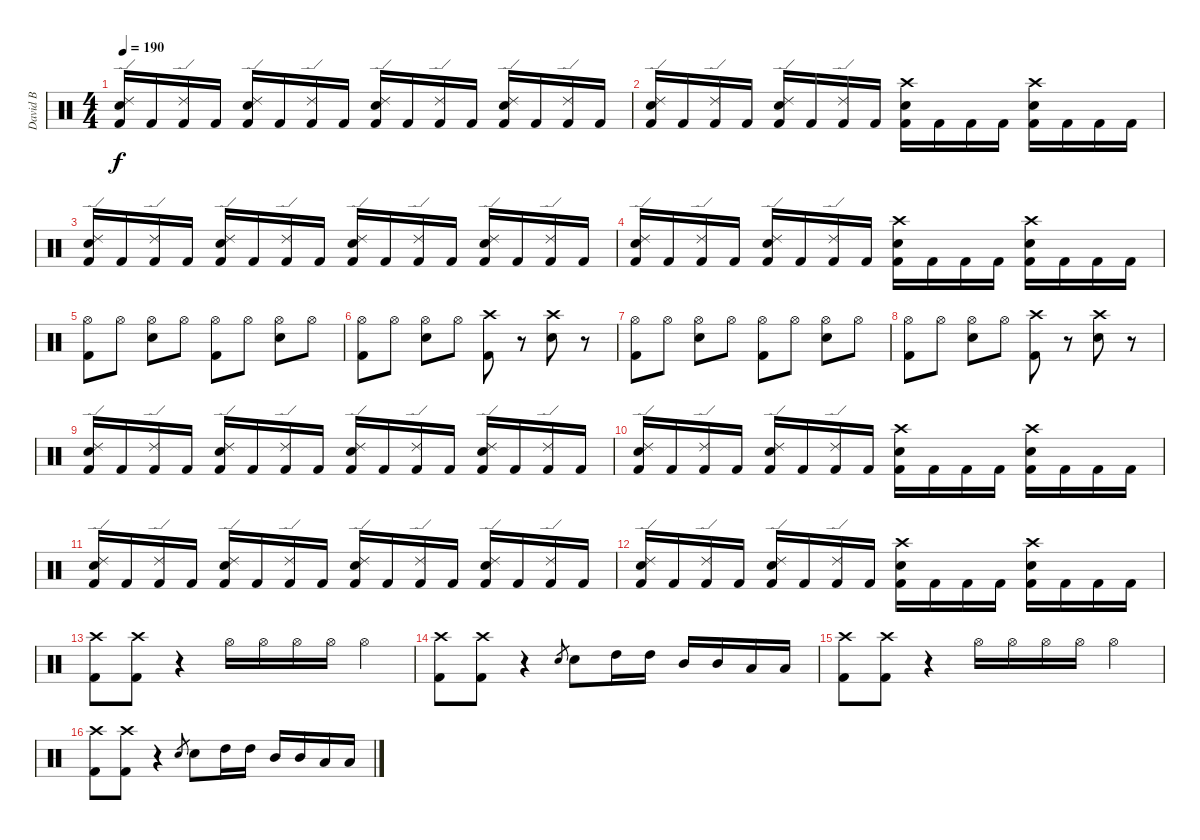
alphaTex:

\track ("David B" "David B") {instrument percussion}
\staff {score}
\articulation defaults
\ts (4 4)
\tempo 190
\clef neutral
\ks c
("Ride (edge) 2" "Electric Snare (hit)" "Kick (hit) 2").16{dy f} "Kick (hit) 2".16 ("Ride (edge) 2" "Kick (hit) 2").16 "Kick (hit) 2".16 ("Ride (edge) 2" "Electric Snare (hit)" "Kick (hit) 2").16 "Kick (hit) 2".16 ("Ride (edge) 2" "Kick (hit) 2").16 "Kick (hit) 2".16 ("Ride (edge) 2" "Electric Snare (hit)" "Kick (hit) 2").16 "Kick (hit) 2".16 ("Ride (edge) 2" "Kick (hit) 2").16 "Kick (hit) 2".16 ("Ride (edge) 2" "Electric Snare (hit)" "Kick (hit) 2").16 "Kick (hit) 2".16 ("Ride (edge) 2" "Kick (hit) 2").16 "Kick (hit) 2".16 |
("Ride (edge) 2" "Electric Snare (hit)" "Kick (hit) 2").16 "Kick (hit) 2".16 ("Ride (edge) 2" "Kick (hit) 2").16 "Kick (hit) 2".16 ("Ride (edge) 2" "Electric Snare (hit)" "Kick (hit) 2").16 "Kick (hit) 2".16 ("Ride (edge) 2" "Kick (hit) 2").16 "Kick (hit) 2".16 ("Crash high (hit)" "Electric Snare (hit)" "Kick (hit) 2").16 "Kick (hit) 2".16 "Kick (hit) 2".16 "Kick (hit) 2".16 ("Crash high (hit)" "Electric Snare (hit)" "Kick (hit) 2").16 "Kick (hit) 2".16 "Kick (hit) 2".16 "Kick (hit) 2".16 |
("Ride (edge) 2" "Electric Snare (hit)" "Kick (hit) 2").16 "Kick (hit) 2".16 ("Ride (edge) 2" "Kick (hit) 2").16 "Kick (hit) 2".16 ("Ride (edge) 2" "Electric Snare (hit)" "Kick (hit) 2").16 "Kick (hit) 2".16 ("Ride (edge) 2" "Kick (hit) 2").16 "Kick (hit) 2".16 ("Ride (edge) 2" "Electric Snare (hit)" "Kick (hit) 2").16 "Kick (hit) 2".16 ("Ride (edge) 2" "Kick (hit) 2").16 "Kick (hit) 2".16 ("Ride (edge) 2" "Electric Snare (hit)" "Kick (hit) 2").16 "Kick (hit) 2".16 ("Ride (edge) 2" "Kick (hit) 2").16 "Kick (hit) 2".16 |
("Ride (edge) 2" "Electric Snare (hit)" "Kick (hit) 2").16 "Kick (hit) 2".16 ("Ride (edge) 2" "Kick (hit) 2").16 "Kick (hit) 2".16 ("Ride (edge) 2" "Electric Snare (hit)" "Kick (hit) 2").16 "Kick (hit) 2".16 ("Ride (edge) 2" "Kick (hit) 2").16 "Kick (hit) 2".16 ("Crash high (hit)" "Electric Snare (hit)" "Kick (hit) 2").16 "Kick (hit) 2".16 "Kick (hit) 2".16 "Kick (hit) 2".16 ("Crash high (hit)" "Electric Snare (hit)" "Kick (hit) 2").16 "Kick (hit) 2".16 "Kick (hit) 2".16 "Kick (hit) 2".16 |
("Hi-Hat (open)" "Kick (hit) 2").8 "Hi-Hat (open)".8 ("Hi-Hat (open)" "Electric Snare (hit)").8 "Hi-Hat (open)".8 ("Hi-Hat (open)" "Kick (hit) 2").8 "Hi-Hat (open)".8 ("Hi-Hat (open)" "Electric Snare (hit)").8 "Hi-Hat (open)".8 |
("Hi-Hat (open)" "Kick (hit) 2").8 "Hi-Hat (open)".8 ("Hi-Hat (open)" "Electric Snare (hit)").8 "Hi-Hat (open)".8 ("Crash high (hit)" "Kick (hit) 2").8 r.8 ("Crash high (hit)" "Electric Snare (hit)").8 r.8 |
("Hi-Hat (open)" "Kick (hit) 2").8 "Hi-Hat (open)".8 ("Hi-Hat (open)" "Electric Snare (hit)").8 "Hi-Hat (open)".8 ("Hi-Hat (open)" "Kick (hit) 2").8 "Hi-Hat (open)".8 ("Hi-Hat (open)" "Electric Snare (hit)").8 "Hi-Hat (open)".8 |
("Hi-Hat (open)" "Kick (hit) 2").8 "Hi-Hat (open)".8 ("Hi-Hat (open)" "Electric Snare (hit)").8 "Hi-Hat (open)".8 ("Crash high (hit)" "Kick (hit) 2").8 r.8 ("Crash high (hit)" "Electric Snare (hit)").8 r.8 |
("Ride (edge) 2" "Electric Snare (hit)" "Kick (hit) 2").16 "Kick (hit) 2".16 ("Ride (edge) 2" "Kick (hit) 2").16 "Kick (hit) 2".16 ("Ride (edge) 2" "Electric Snare (hit)" "Kick (hit) 2").16 "Kick (hit) 2".16 ("Ride (edge) 2" "Kick (hit) 2").16 "Kick (hit) 2".16 ("Ride (edge) 2" "Electric Snare (hit)" "Kick (hit) 2").16 "Kick (hit) 2".16 ("Ride (edge) 2" "Kick (hit) 2").16 "Kick (hit) 2".16 ("Ride (edge) 2" "Electric Snare (hit)" "Kick (hit) 2").16 "Kick (hit) 2".16 ("Ride (edge) 2" "Kick (hit) 2").16 "Kick (hit) 2".16 |
("Ride (edge) 2" "Electric Snare (hit)" "Kick (hit) 2").16 "Kick (hit) 2".16 ("Ride (edge) 2" "Kick (hit) 2").16 "Kick (hit) 2".16 ("Ride (edge) 2" "Electric Snare (hit)" "Kick (hit) 2").16 "Kick (hit) 2".16 ("Ride (edge) 2" "Kick (hit) 2").16 "Kick (hit) 2".16 ("Crash high (hit)" "Electric Snare (hit)" "Kick (hit) 2").16 "Kick (hit) 2".16 "Kick (hit) 2".16 "Kick (hit) 2".16 ("Crash high (hit)" "Electric Snare (hit)" "Kick (hit) 2").16 "Kick (hit) 2".16 "Kick (hit) 2".16 "Kick (hit) 2".16 |
("Ride (edge) 2" "Electric Snare (hit)" "Kick (hit) 2").16 "Kick (hit) 2".16 ("Ride (edge) 2" "Kick (hit) 2").16 "Kick (hit) 2".16 ("Ride (edge) 2" "Electric Snare (hit)" "Kick (hit) 2").16 "Kick (hit) 2".16 ("Ride (edge) 2" "Kick (hit) 2").16 "Kick (hit) 2".16 ("Ride (edge) 2" "Electric Snare (hit)" "Kick (hit) 2").16 "Kick (hit) 2".16 ("Ride (edge) 2" "Kick (hit) 2").16 "Kick (hit) 2".16 ("Ride (edge) 2" "Electric Snare (hit)" "Kick (hit) 2").16 "Kick (hit) 2".16 ("Ride (edge) 2" "Kick (hit) 2").16 "Kick (hit) 2".16 |
("Ride (edge) 2" "Electric Snare (hit)" "Kick (hit) 2").16 "Kick (hit) 2".16 ("Ride (edge) 2" "Kick (hit) 2").16 "Kick (hit) 2".16 ("Ride (edge) 2" "Electric Snare (hit)" "Kick (hit) 2").16 "Kick (hit) 2".16 ("Ride (edge) 2" "Kick (hit) 2").16 "Kick (hit) 2".16 ("Crash high (hit)" "Electric Snare (hit)" "Kick (hit) 2").16 "Kick (hit) 2".16 "Kick (hit) 2".16 "Kick (hit) 2".16 ("Crash high (hit)" "Electric Snare (hit)" "Kick (hit) 2").16 "Kick (hit) 2".16 "Kick (hit) 2".16 "Kick (hit) 2".16 |
("Crash high (hit)" "Kick (hit) 2").8 ("Crash high (hit)" "Kick (hit) 2").8 r.4 "Hi-Hat (open)".16 "Hi-Hat (open)".16 "Hi-Hat (open)".16 "Hi-Hat (open)".16 "Hi-Hat (open)".4 |
("Crash high (hit)" "Kick (hit) 2").8 ("Crash high (hit)" "Kick (hit) 2").8 r.4 "Electric Snare (hit)".8{gr} "Electric Snare (hit)".8 "High Tom (hit)".16 "High Tom (hit)".16 "Mid Tom (hit)".16 "Mid Tom (hit)".16 "Low Tom (hit)".16 "Low Tom (hit)".16 |
("Crash high (hit)" "Kick (hit) 2").8 ("Crash high (hit)" "Kick (hit) 2").8 r.4 "Hi-Hat (open)".16 "Hi-Hat (open)".16 "Hi-Hat (open)".16 "Hi-Hat (open)".16 "Hi-Hat (open)".4 |
("Crash high (hit)" "Kick (hit) 2").8 ("Crash high (hit)" "Kick (hit) 2").8 r.4 "Electric Snare (hit)".8{gr} "Electric Snare (hit)".8 "High Tom (hit)".16 "High Tom (hit)".16 "Mid Tom (hit)".16 "Mid Tom (hit)".16 "Low Tom (hit)".16 "Low Tom (hit)".16
